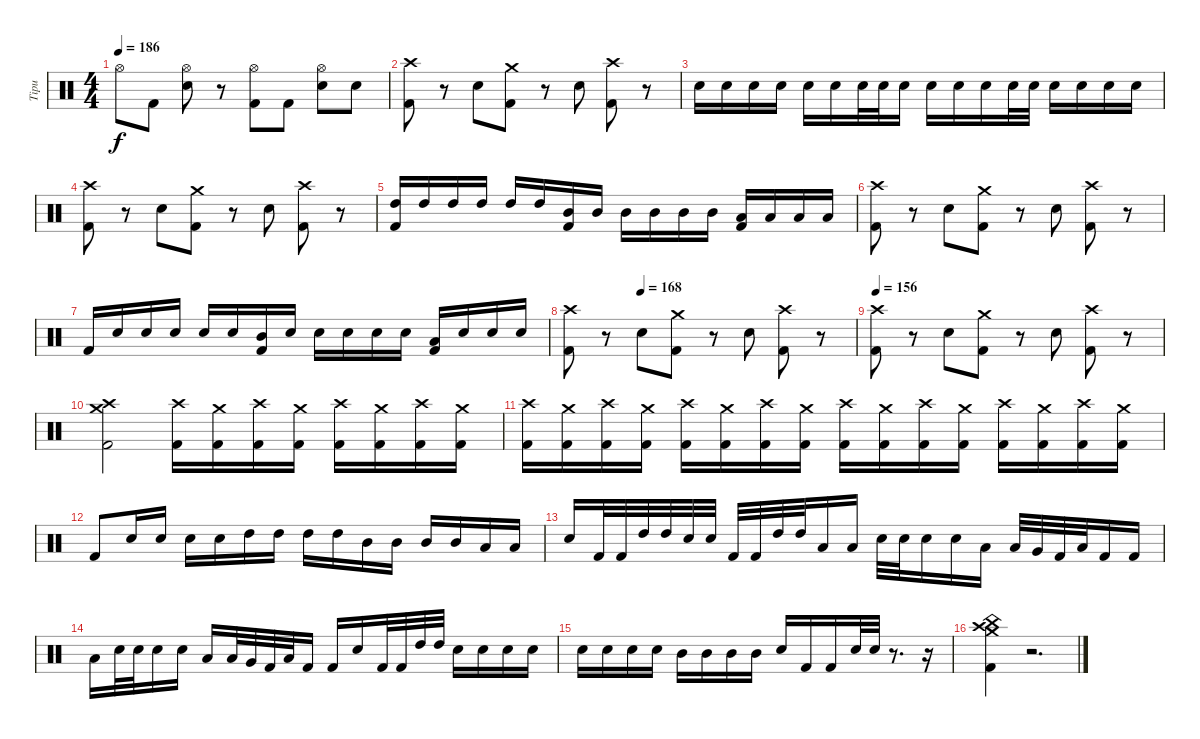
\track ("Tipu" "Tipu") {instrument percussion}
\staff {score}
\articulation defaults
\ts (4 4)
\tempo 186
\clef neutral
\ks c "Hi-Hat (open)".8{dy f} "Kick (hit) 2".8
("Hi-Hat (open)" "Electric Snare (hit)").8 r.8 ("Hi-Hat (open)" "Kick (hit) 2").8 "Kick (hit) 2".8 ("Hi-Hat (open)" "Electric Snare (hit)").8 "Electric Snare (hit)".8 |
("Crash high (hit)" "Kick (hit) 2").8 r.8 "Electric Snare (hit)".8 ("Crash medium (hit)" "Kick (hit) 2").8 r.8 "Electric Snare (hit)".8 ("Crash high (hit)" "Kick (hit) 2").8 r.8 |
"Electric Snare (hit)".16 "Electric Snare (hit)".16 "Electric Snare (hit)".16 "Electric Snare (hit)".16 "Electric Snare (hit)".16 "Electric Snare (hit)".16 "Electric Snare (hit)".32 "Electric Snare (hit)".32 "Electric Snare (hit)".16 "Electric Snare (hit)".16 "Electric Snare (hit)".16 "Electric Snare (hit)".16 "Electric Snare (hit)".32 "Electric Snare (hit)".32 "Electric Snare (hit)".16 "Electric Snare (hit)".16 "Electric Snare (hit)".16 "Electric Snare (hit)".16 |
("Crash high (hit)" "Kick (hit) 2").8 r.8 "Electric Snare (hit)".8 ("Crash medium (hit)" "Kick (hit) 2").8 r.8 "Electric Snare (hit)".8 ("Crash high (hit)" "Kick (hit) 2").8 r.8 |
("High Tom (hit)" "Kick (hit) 2").16 "High Tom (hit)".16 "High Tom (hit)".16 "High Tom (hit)".16 "High Tom (hit)".16 "High Tom (hit)".16 ("Mid Tom (hit)" "Kick (hit) 2").16 "Mid Tom (hit)".16 "Mid Tom (hit)".16 "Mid Tom (hit)".16 "Mid Tom (hit)".16 "Mid Tom (hit)".16 ("Low Tom (hit)" "Kick (hit) 2").16 "Low Tom (hit)".16 "Low Tom (hit)".16 "Low Tom (hit)".16 |
("Crash high (hit)" "Kick (hit) 2").8 r.8 "Electric Snare (hit)".8 ("Crash medium (hit)" "Kick (hit) 2").8 r.8 "Electric Snare (hit)".8 ("Crash high (hit)" "Kick (hit) 2").8 r.8 |
"Kick (hit) 2".16 "Electric Snare (hit)".16 "Electric Snare (hit)".16 "Electric Snare (hit)".16 "Electric Snare (hit)".16 "Electric Snare (hit)".16 ("Mid Tom (hit)" "Kick (hit) 2").16 "Electric Snare (hit)".16 "Electric Snare (hit)".16 "Electric Snare (hit)".16 "Electric Snare (hit)".16 "Electric Snare (hit)".16 ("Low Tom (hit)" "Kick (hit) 2").16 "Electric Snare (hit)".16 "Electric Snare (hit)".16 "Electric Snare (hit)".16 |
\tempo (168 0.25)
("Crash high (hit)" "Kick (hit) 2").8 r.8 "Electric Snare (hit)".8 ("Crash medium (hit)" "Kick (hit) 2").8 r.8 "Electric Snare (hit)".8 ("Crash high (hit)" "Kick (hit) 2").8 r.8 |
\tempo 156
("Crash high (hit)" "Kick (hit) 2").8 r.8 "Electric Snare (hit)".8 ("Crash medium (hit)" "Kick (hit) 2").8 r.8 "Electric Snare (hit)".8 ("Crash high (hit)" "Kick (hit) 2").8 r.8 |
("Kick (hit) 2" "Crash medium (hit)" "Crash high (hit)").2 ("Kick (hit) 2" "Crash high (hit)").16 ("Kick (hit) 2" "Crash medium (hit)").16 ("Kick (hit) 2" "Crash high (hit)").16 ("Kick (hit) 2" "Crash medium (hit)").16 ("Kick (hit) 2" "Crash high (hit)").16 ("Kick (hit) 2" "Crash medium (hit)").16 ("Kick (hit) 2" "Crash high (hit)").16 ("Kick (hit) 2" "Crash medium (hit)").16 |
("Kick (hit) 2" "Crash high (hit)").16 ("Kick (hit) 2" "Crash medium (hit)").16 ("Kick (hit) 2" "Crash high (hit)").16 ("Kick (hit) 2" "Crash medium (hit)").16 ("Kick (hit) 2" "Crash high (hit)").16 ("Kick (hit) 2" "Crash medium (hit)").16 ("Kick (hit) 2" "Crash high (hit)").16 ("Kick (hit) 2" "Crash medium (hit)").16 ("Kick (hit) 2" "Crash high (hit)").16 ("Kick (hit) 2" "Crash medium (hit)").16 ("Kick (hit) 2" "Crash high (hit)").16 ("Kick (hit) 2" "Crash medium (hit)").16 ("Kick (hit) 2" "Crash high (hit)").16 ("Kick (hit) 2" "Crash medium (hit)").16 ("Kick (hit) 2" "Crash high (hit)").16 ("Kick (hit) 2" "Crash medium (hit)").16 |
"Kick (hit) 2".8 "Electric Snare (hit)".16 "Electric Snare (hit)".16 "Electric Snare (hit)".16 "Electric Snare (hit)".16 "High Tom (hit)".16 "High Tom (hit)".16 "High Tom (hit)".16 "High Tom (hit)".16 "Mid Tom (hit)".16 "Mid Tom (hit)".16 "Mid Tom (hit)".16 "Mid Tom (hit)".16 "Low Tom (hit)".16 "Low Tom (hit)".16 |
"Electric Snare (hit)".16 "Kick (hit) 2".32 "Kick (hit) 2".32 "High Tom (hit)".32 "High Tom (hit)".32 "Electric Snare (hit)".32 "Electric Snare (hit)".32 "Kick (hit) 2".32 "Kick (hit) 2".32 "High Tom (hit)".32 "High Tom (hit)".32 "Low Tom (hit)".16 "Low Tom (hit)".16 "Electric Snare (hit)".32 "Electric Snare (hit)".32 "Electric Snare (hit)".16 "Electric Snare (hit)".16 "Low Tom (hit)".16 "Low Tom (hit)".32 "Very Low Tom (hit)".32 "Kick (hit) 2".32 "Low Floor Tom (hit)".32 "Kick (hit) 2".16 "Kick (hit) 2".16 |
"Low Tom (hit)".16 "Electric Snare (hit)".32 "Electric Snare (hit)".32 "Electric Snare (hit)".16 "Electric Snare (hit)".16 "Low Tom (hit)".16 "Low Tom (hit)".32 "Very Low Tom (hit)".32 "Kick (hit) 2".32 "Low Floor Tom (hit)".32 "Kick (hit) 2".16 "Kick (hit) 2".16 "Electric Snare (hit)".16 "Kick (hit) 2".32 "Kick (hit) 2".32 "High Tom (hit)".32 "High Tom (hit)".32 "Electric Snare (hit)".16 "Electric Snare (hit)".16 "Electric Snare (hit)".16 "Electric Snare (hit)".16 |
"Electric Snare (hit)".16 "Electric Snare (hit)".16 "Electric Snare (hit)".16 "Electric Snare (hit)".16 "Mid Tom (hit)".16 "Mid Tom (hit)".16 "Mid Tom (hit)".16 "Mid Tom (hit)".16 "Electric Snare (hit)".16 "Kick (hit) 2".16 "Kick (hit) 2".16 "Electric Snare (hit)".32 "Electric Snare (hit)".32 r.8{d} r.16 |
("Kick (hit) 2" "Crash high (hit)" "China (hit)" "Crash medium (hit)").4 r.2{d}
